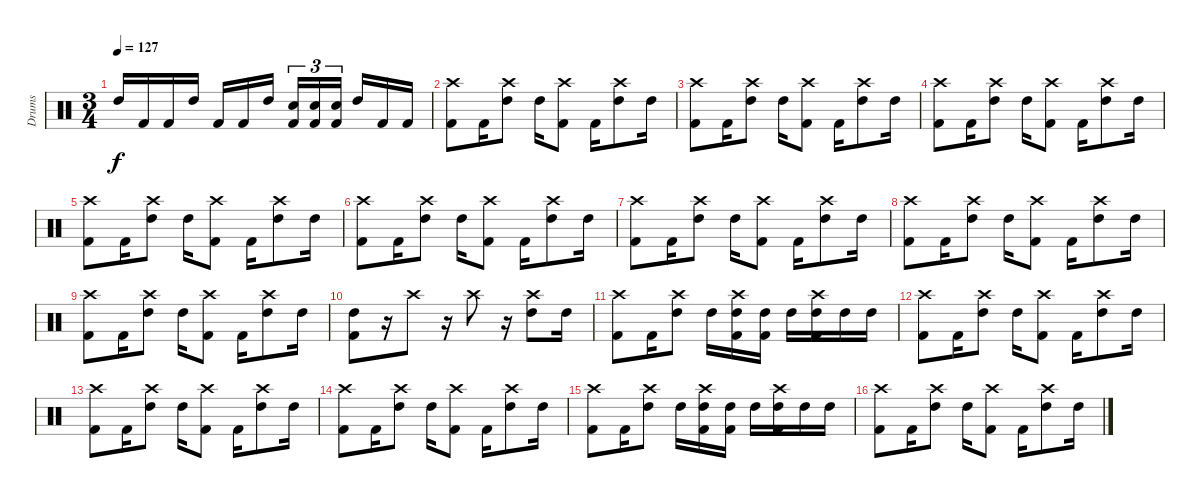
\track ("Drums" "Drums") {instrument percussion}
\staff {score}
\articulation defaults
\ts (3 4)
\tempo 127
\clef neutral
\ks c "High Tom (hit)".16{dy f} "Kick (hit) 2".16 "Kick (hit) 2".16 "High Tom (hit)".16 "Kick (hit) 2".16 "Kick (hit) 2".16 "High Tom (hit)".16
("Electric Snare (hit)" "Kick (hit) 2").16{tu (3 2)} ("Electric Snare (hit)" "Kick (hit) 2").16{tu (3 2)} ("Electric Snare (hit)" "Kick (hit) 2").16{tu (3 2)} "High Tom (hit)".16 "Kick (hit) 2".16 "Kick (hit) 2".16 |
("Crash high (hit)" "Kick (hit) 2").8 "Kick (hit) 2".16 ("Crash high (hit)" "High Tom (hit)").8 "High Tom (hit)".16 ("Crash high (hit)" "Kick (hit) 2").8 "Kick (hit) 2".16 ("Crash high (hit)" "High Tom (hit)").8 "High Tom (hit)".16 |
("Crash high (hit)" "Kick (hit) 2").8 "Kick (hit) 2".16 ("Crash high (hit)" "High Tom (hit)").8 "High Tom (hit)".16 ("Crash high (hit)" "Kick (hit) 2").8 "Kick (hit) 2".16 ("Crash high (hit)" "High Tom (hit)").8 "High Tom (hit)".16 |
("Crash high (hit)" "Kick (hit) 2").8 "Kick (hit) 2".16 ("Crash high (hit)" "High Tom (hit)").8 "High Tom (hit)".16 ("Crash high (hit)" "Kick (hit) 2").8 "Kick (hit) 2".16 ("Crash high (hit)" "High Tom (hit)").8 "High Tom (hit)".16 |
("Crash high (hit)" "Kick (hit) 2").8 "Kick (hit) 2".16 ("Crash high (hit)" "High Tom (hit)").8 "High Tom (hit)".16 ("Crash high (hit)" "Kick (hit) 2").8 "Kick (hit) 2".16 ("Crash high (hit)" "High Tom (hit)").8 "High Tom (hit)".16 |
("Crash high (hit)" "Kick (hit) 2").8 "Kick (hit) 2".16 ("Crash high (hit)" "High Tom (hit)").8 "High Tom (hit)".16 ("Crash high (hit)" "Kick (hit) 2").8 "Kick (hit) 2".16 ("Crash high (hit)" "High Tom (hit)").8 "High Tom (hit)".16 |
("Crash high (hit)" "Kick (hit) 2").8 "Kick (hit) 2".16 ("Crash high (hit)" "High Tom (hit)").8 "High Tom (hit)".16 ("Crash high (hit)" "Kick (hit) 2").8 "Kick (hit) 2".16 ("Crash high (hit)" "High Tom (hit)").8 "High Tom (hit)".16 |
("Crash high (hit)" "Kick (hit) 2").8 "Kick (hit) 2".16 ("Crash high (hit)" "High Tom (hit)").8 "High Tom (hit)".16 ("Crash high (hit)" "Kick (hit) 2").8 "Kick (hit) 2".16 ("Crash high (hit)" "High Tom (hit)").8 "High Tom (hit)".16 |
("Crash high (hit)" "Kick (hit) 2").8 "Kick (hit) 2".16 ("Crash high (hit)" "High Tom (hit)").8 "High Tom (hit)".16 ("Crash high (hit)" "Kick (hit) 2").8 "Kick (hit) 2".16 ("Crash high (hit)" "High Tom (hit)").8 "High Tom (hit)".16 |
("High Tom (hit)" "Kick (hit) 2").8 r.16 "Crash high (hit)".8 r.16 "Crash high (hit)".8 r.16 ("Crash high (hit)" "High Tom (hit)").8 "High Tom (hit)".16 |
("Crash high (hit)" "Kick (hit) 2").8 "Kick (hit) 2".16 ("Crash high (hit)" "High Tom (hit)").8 "High Tom (hit)".16 ("Crash high (hit)" "High Tom (hit)" "Kick (hit) 2").16 ("High Tom (hit)" "Kick (hit) 2").16 "High Tom (hit)".16 ("Crash high (hit)" "High Tom (hit)" "Kick (hit) 2").16 "High Tom (hit)".16 "High Tom (hit)".16 |
("Crash high (hit)" "Kick (hit) 2").8 "Kick (hit) 2".16 ("Crash high (hit)" "High Tom (hit)").8 "High Tom (hit)".16 ("Crash high (hit)" "Kick (hit) 2").8 "Kick (hit) 2".16 ("Crash high (hit)" "High Tom (hit)").8 "High Tom (hit)".16 |
("Crash high (hit)" "Kick (hit) 2").8 "Kick (hit) 2".16 ("Crash high (hit)" "High Tom (hit)").8 "High Tom (hit)".16 ("Crash high (hit)" "Kick (hit) 2").8 "Kick (hit) 2".16 ("Crash high (hit)" "High Tom (hit)").8 "High Tom (hit)".16 |
("Crash high (hit)" "Kick (hit) 2").8 "Kick (hit) 2".16 ("Crash high (hit)" "High Tom (hit)").8 "High Tom (hit)".16 ("Crash high (hit)" "Kick (hit) 2").8 "Kick (hit) 2".16 ("Crash high (hit)" "High Tom (hit)").8 "High Tom (hit)".16 |
("Crash high (hit)" "Kick (hit) 2").8 "Kick (hit) 2".16 ("Crash high (hit)" "High Tom (hit)").8 "High Tom (hit)".16 ("Crash high (hit)" "High Tom (hit)" "Kick (hit) 2").16 ("High Tom (hit)" "Kick (hit) 2").16 "High Tom (hit)".16 ("Crash high (hit)" "High Tom (hit)" "Kick (hit) 2").16 "High Tom (hit)".16 "High Tom (hit)".16 |
("Crash high (hit)" "Kick (hit) 2").8 "Kick (hit) 2".16 ("Crash high (hit)" "High Tom (hit)").8 "High Tom (hit)".16 ("Crash high (hit)" "Kick (hit) 2").8 "Kick (hit) 2".16 ("Crash high (hit)" "High Tom (hit)").8 "High Tom (hit)".16
